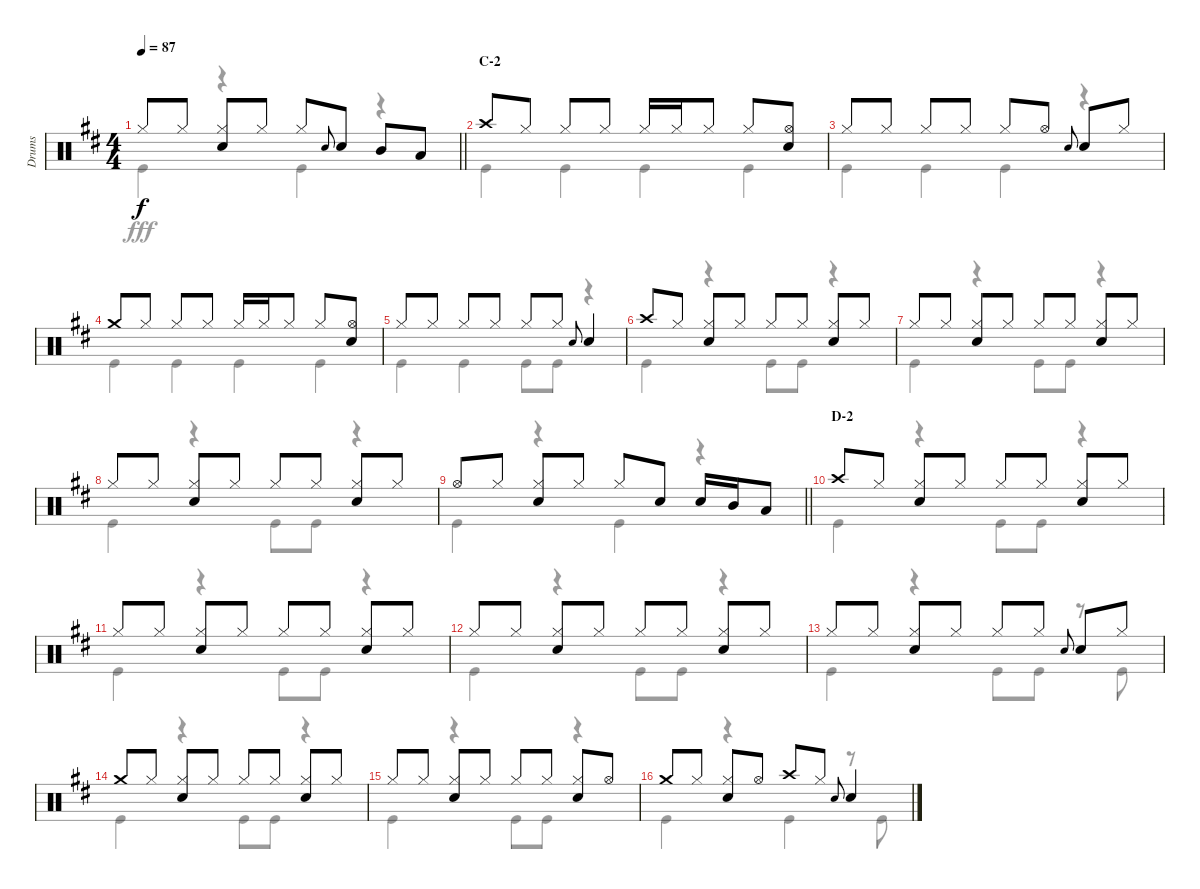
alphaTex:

\track ("Drums" "Drums") {instrument percussion}
\staff {score}
\articulation defaults
\voice
\ts (4 4)
\tempo 87
\clef neutral
\barLineRight lightlight
\ks d "Hi-Hat (closed)".8{dy f} "Hi-Hat (closed)".8
("Hi-Hat (closed)" "Snare (hit) 2").8 "Hi-Hat (closed)".8 "Hi-Hat (closed)".8 "Snare (hit) 2".8{gr onbeat} "Snare (hit) 2".8 "Mid Tom (hit)".8 "Low Tom (hit)".8 |
\section ("" "C-2")
"Crash high (hit)".8 "Hi-Hat (closed)".8 "Hi-Hat (closed)".8 "Hi-Hat (closed)".8 "Hi-Hat (closed)".16 "Hi-Hat (closed)".16 "Hi-Hat (closed)".8 "Hi-Hat (closed)".8 ("Hi-Hat (open)" "Snare (hit) 2").8 |
"Hi-Hat (closed)".8 "Hi-Hat (closed)".8 "Hi-Hat (closed)".8 "Hi-Hat (closed)".8 "Hi-Hat (closed)".8 "Hi-Hat (open)".8 "Snare (hit) 2".8{gr onbeat} "Snare (hit) 2".8 "Hi-Hat (closed)".8 |
"Crash medium (hit)".8 "Hi-Hat (closed)".8 "Hi-Hat (closed)".8 "Hi-Hat (closed)".8 "Hi-Hat (closed)".16 "Hi-Hat (closed)".16 "Hi-Hat (closed)".8 "Hi-Hat (closed)".8 ("Hi-Hat (open)" "Snare (hit) 2").8 |
"Hi-Hat (closed)".8 "Hi-Hat (closed)".8 "Hi-Hat (closed)".8 "Hi-Hat (closed)".8 "Hi-Hat (closed)".8 "Hi-Hat (closed)".8 "Snare (hit) 2".8{gr onbeat} "Snare (hit) 2".4 |
"Crash high (hit)".8 "Hi-Hat (closed)".8 ("Hi-Hat (closed)" "Snare (hit) 2").8 "Hi-Hat (closed)".8 "Hi-Hat (closed)".8 "Hi-Hat (closed)".8 ("Hi-Hat (closed)" "Snare (hit) 2").8 "Hi-Hat (closed)".8 |
"Hi-Hat (closed)".8 "Hi-Hat (closed)".8 ("Hi-Hat (closed)" "Snare (hit) 2").8 "Hi-Hat (closed)".8 "Hi-Hat (closed)".8 "Hi-Hat (closed)".8 ("Hi-Hat (closed)" "Snare (hit) 2").8 "Hi-Hat (closed)".8 |
"Hi-Hat (closed)".8 "Hi-Hat (closed)".8 ("Hi-Hat (closed)" "Snare (hit) 2").8 "Hi-Hat (closed)".8 "Hi-Hat (closed)".8 "Hi-Hat (closed)".8 ("Hi-Hat (closed)" "Snare (hit) 2").8 "Hi-Hat (closed)".8 |
\barLineRight lightlight "Hi-Hat (open)".8 "Hi-Hat (closed)".8
("Hi-Hat (closed)" "Snare (hit) 2").8 "Hi-Hat (closed)".8 "Hi-Hat (closed)".8 "Snare (hit) 2".8 "Snare (hit) 2".16 "Mid Tom (hit)".16 "Low Tom (hit)".8 |
\section ("" "D-2")
"Crash high (hit)".8 "Hi-Hat (closed)".8 ("Hi-Hat (closed)" "Snare (hit) 2").8 "Hi-Hat (closed)".8 "Hi-Hat (closed)".8 "Hi-Hat (closed)".8 ("Hi-Hat (closed)" "Snare (hit) 2").8 "Hi-Hat (closed)".8 |
"Hi-Hat (closed)".8 "Hi-Hat (closed)".8 ("Hi-Hat (closed)" "Snare (hit) 2").8 "Hi-Hat (closed)".8 "Hi-Hat (closed)".8 "Hi-Hat (closed)".8 ("Hi-Hat (closed)" "Snare (hit) 2").8 "Hi-Hat (closed)".8 |
"Hi-Hat (closed)".8 "Hi-Hat (closed)".8 ("Hi-Hat (closed)" "Snare (hit) 2").8 "Hi-Hat (closed)".8 "Hi-Hat (closed)".8 "Hi-Hat (closed)".8 ("Hi-Hat (closed)" "Snare (hit) 2").8 "Hi-Hat (closed)".8 |
"Hi-Hat (closed)".8 "Hi-Hat (closed)".8 ("Hi-Hat (closed)" "Snare (hit) 2").8 "Hi-Hat (closed)".8 "Hi-Hat (closed)".8 "Hi-Hat (closed)".8 "Snare (hit) 2".8{gr onbeat} "Snare (hit) 2".8 "Hi-Hat (closed)".8 |
"Crash medium (hit)".8 "Hi-Hat (closed)".8 ("Hi-Hat (closed)" "Snare (hit) 2").8 "Hi-Hat (closed)".8 "Hi-Hat (closed)".8 "Hi-Hat (closed)".8 ("Hi-Hat (closed)" "Snare (hit) 2").8 "Hi-Hat (closed)".8 |
"Hi-Hat (closed)".8 "Hi-Hat (closed)".8 ("Hi-Hat (closed)" "Snare (hit) 2").8 "Hi-Hat (closed)".8 "Hi-Hat (closed)".8 "Hi-Hat (closed)".8 ("Hi-Hat (closed)" "Snare (hit) 2").8 "Hi-Hat (open)".8 |
"Crash medium (hit)".8 "Hi-Hat (closed)".8 ("Hi-Hat (closed)" "Snare (hit) 2").8 "Hi-Hat (open)".8 "Crash high (hit)".8 "Hi-Hat (closed)".8 "Snare (hit) 2".8{gr onbeat} "Snare (hit) 2".4
\voice
\clef neutral
\ottava regular
\simile none
\barLineRight lightlight
\ks d "Kick (hit)".4{dy fff}
r.4 "Kick (hit)".4 r.4 |
"Kick (hit)".4 "Kick (hit)".4 "Kick (hit)".4 "Kick (hit)".4 |
"Kick (hit)".4 "Kick (hit)".4 "Kick (hit)".4 r.4 |
"Kick (hit)".4 "Kick (hit)".4 "Kick (hit)".4 "Kick (hit)".4 |
"Kick (hit)".4 "Kick (hit)".4 "Kick (hit)".8 "Kick (hit)".8 r.4 |
"Kick (hit)".4 r.4 "Kick (hit)".8 "Kick (hit)".8 r.4 |
"Kick (hit)".4 r.4 "Kick (hit)".8 "Kick (hit)".8 r.4 |
"Kick (hit)".4 r.4 "Kick (hit)".8 "Kick (hit)".8 r.4 |
\barLineRight lightlight "Kick (hit)".4
r.4 "Kick (hit)".4 r.4 |
"Kick (hit)".4 r.4 "Kick (hit)".8 "Kick (hit)".8 r.4 |
"Kick (hit)".4 r.4 "Kick (hit)".8 "Kick (hit)".8 r.4 |
"Kick (hit)".4 r.4 "Kick (hit)".8 "Kick (hit)".8 r.4 |
"Kick (hit)".4 r.4 "Kick (hit)".8 "Kick (hit)".8 r.8 "Kick (hit)".8 |
"Kick (hit)".4 r.4 "Kick (hit)".8 "Kick (hit)".8 r.4 |
"Kick (hit)".4 r.4 "Kick (hit)".8 "Kick (hit)".8 r.4 |
"Kick (hit)".4 r.4 "Kick (hit)".4 r.8 "Kick (hit)".8
